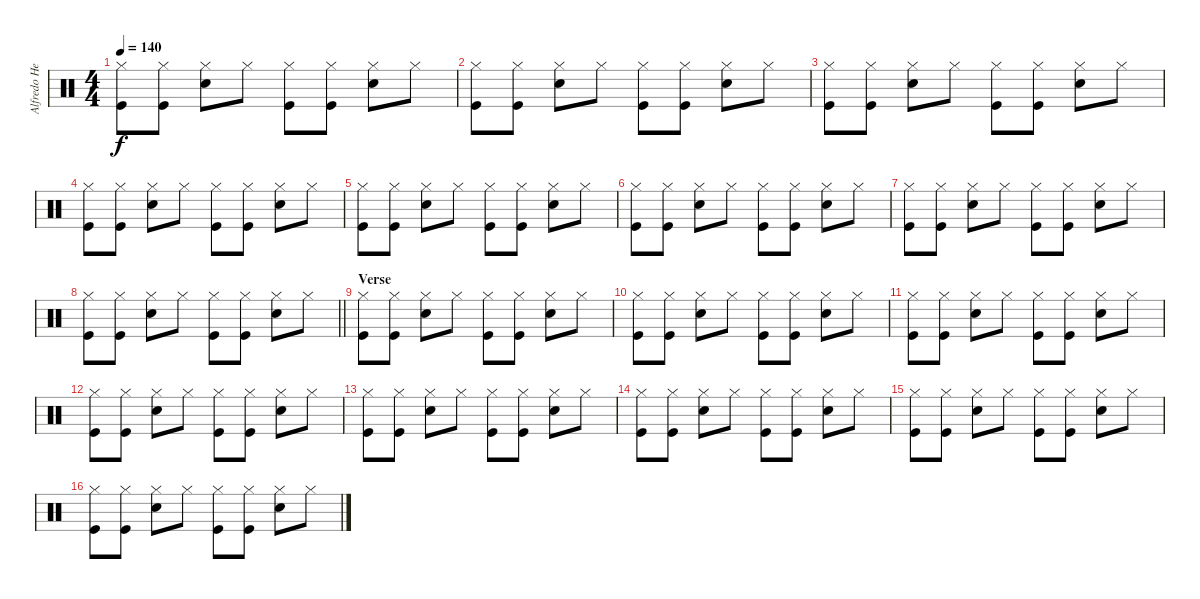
\track ("Alfredo Hernandez - Percussion" "Alfredo He") {instrument percussion}
\staff {score}
\articulation defaults
\ts (4 4)
\tempo 140
\clef neutral
\ks c
("Kick (hit)" "Hi-Hat (closed)").8{dy f} ("Kick (hit)" "Hi-Hat (closed)").8 ("Snare (hit) 2" "Hi-Hat (closed)").8 "Hi-Hat (closed)".8 ("Kick (hit)" "Hi-Hat (closed)").8 ("Kick (hit)" "Hi-Hat (closed)").8 ("Snare (hit) 2" "Hi-Hat (closed)").8 "Hi-Hat (closed)".8 |
("Kick (hit)" "Hi-Hat (closed)").8 ("Kick (hit)" "Hi-Hat (closed)").8 ("Snare (hit) 2" "Hi-Hat (closed)").8 "Hi-Hat (closed)".8 ("Kick (hit)" "Hi-Hat (closed)").8 ("Kick (hit)" "Hi-Hat (closed)").8 ("Snare (hit) 2" "Hi-Hat (closed)").8 "Hi-Hat (closed)".8 |
("Kick (hit)" "Hi-Hat (closed)").8 ("Kick (hit)" "Hi-Hat (closed)").8 ("Snare (hit) 2" "Hi-Hat (closed)").8 "Hi-Hat (closed)".8 ("Kick (hit)" "Hi-Hat (closed)").8 ("Kick (hit)" "Hi-Hat (closed)").8 ("Snare (hit) 2" "Hi-Hat (closed)").8 "Hi-Hat (closed)".8 |
("Kick (hit)" "Hi-Hat (closed)").8 ("Kick (hit)" "Hi-Hat (closed)").8 ("Snare (hit) 2" "Hi-Hat (closed)").8 "Hi-Hat (closed)".8 ("Kick (hit)" "Hi-Hat (closed)").8 ("Kick (hit)" "Hi-Hat (closed)").8 ("Snare (hit) 2" "Hi-Hat (closed)").8 "Hi-Hat (closed)".8 |
("Kick (hit)" "Hi-Hat (closed)").8 ("Kick (hit)" "Hi-Hat (closed)").8 ("Snare (hit) 2" "Hi-Hat (closed)").8 "Hi-Hat (closed)".8 ("Kick (hit)" "Hi-Hat (closed)").8 ("Kick (hit)" "Hi-Hat (closed)").8 ("Snare (hit) 2" "Hi-Hat (closed)").8 "Hi-Hat (closed)".8 |
("Kick (hit)" "Hi-Hat (closed)").8 ("Kick (hit)" "Hi-Hat (closed)").8 ("Snare (hit) 2" "Hi-Hat (closed)").8 "Hi-Hat (closed)".8 ("Kick (hit)" "Hi-Hat (closed)").8 ("Kick (hit)" "Hi-Hat (closed)").8 ("Snare (hit) 2" "Hi-Hat (closed)").8 "Hi-Hat (closed)".8 |
("Kick (hit)" "Hi-Hat (closed)").8 ("Kick (hit)" "Hi-Hat (closed)").8 ("Snare (hit) 2" "Hi-Hat (closed)").8 "Hi-Hat (closed)".8 ("Kick (hit)" "Hi-Hat (closed)").8 ("Kick (hit)" "Hi-Hat (closed)").8 ("Snare (hit) 2" "Hi-Hat (closed)").8 "Hi-Hat (closed)".8 |
\barLineRight lightlight
("Kick (hit)" "Hi-Hat (closed)").8 ("Kick (hit)" "Hi-Hat (closed)").8 ("Snare (hit) 2" "Hi-Hat (closed)").8 "Hi-Hat (closed)".8 ("Kick (hit)" "Hi-Hat (closed)").8 ("Kick (hit)" "Hi-Hat (closed)").8 ("Snare (hit) 2" "Hi-Hat (closed)").8 "Hi-Hat (closed)".8 |
\section ("" "Verse")
("Kick (hit)" "Hi-Hat (closed)").8 ("Kick (hit)" "Hi-Hat (closed)").8 ("Snare (hit) 2" "Hi-Hat (closed)").8 "Hi-Hat (closed)".8 ("Kick (hit)" "Hi-Hat (closed)").8 ("Kick (hit)" "Hi-Hat (closed)").8 ("Snare (hit) 2" "Hi-Hat (closed)").8 "Hi-Hat (closed)".8 |
("Kick (hit)" "Hi-Hat (closed)").8 ("Kick (hit)" "Hi-Hat (closed)").8 ("Snare (hit) 2" "Hi-Hat (closed)").8 "Hi-Hat (closed)".8 ("Kick (hit)" "Hi-Hat (closed)").8 ("Kick (hit)" "Hi-Hat (closed)").8 ("Snare (hit) 2" "Hi-Hat (closed)").8 "Hi-Hat (closed)".8 |
("Kick (hit)" "Hi-Hat (closed)").8 ("Kick (hit)" "Hi-Hat (closed)").8 ("Snare (hit) 2" "Hi-Hat (closed)").8 "Hi-Hat (closed)".8 ("Kick (hit)" "Hi-Hat (closed)").8 ("Kick (hit)" "Hi-Hat (closed)").8 ("Snare (hit) 2" "Hi-Hat (closed)").8 "Hi-Hat (closed)".8 |
("Kick (hit)" "Hi-Hat (closed)").8 ("Kick (hit)" "Hi-Hat (closed)").8 ("Snare (hit) 2" "Hi-Hat (closed)").8 "Hi-Hat (closed)".8 ("Kick (hit)" "Hi-Hat (closed)").8 ("Kick (hit)" "Hi-Hat (closed)").8 ("Snare (hit) 2" "Hi-Hat (closed)").8 "Hi-Hat (closed)".8 |
("Kick (hit)" "Hi-Hat (closed)").8 ("Kick (hit)" "Hi-Hat (closed)").8 ("Snare (hit) 2" "Hi-Hat (closed)").8 "Hi-Hat (closed)".8 ("Kick (hit)" "Hi-Hat (closed)").8 ("Kick (hit)" "Hi-Hat (closed)").8 ("Snare (hit) 2" "Hi-Hat (closed)").8 "Hi-Hat (closed)".8 |
("Kick (hit)" "Hi-Hat (closed)").8 ("Kick (hit)" "Hi-Hat (closed)").8 ("Snare (hit) 2" "Hi-Hat (closed)").8 "Hi-Hat (closed)".8 ("Kick (hit)" "Hi-Hat (closed)").8 ("Kick (hit)" "Hi-Hat (closed)").8 ("Snare (hit) 2" "Hi-Hat (closed)").8 "Hi-Hat (closed)".8 |
("Kick (hit)" "Hi-Hat (closed)").8 ("Kick (hit)" "Hi-Hat (closed)").8 ("Snare (hit) 2" "Hi-Hat (closed)").8 "Hi-Hat (closed)".8 ("Kick (hit)" "Hi-Hat (closed)").8 ("Kick (hit)" "Hi-Hat (closed)").8 ("Snare (hit) 2" "Hi-Hat (closed)").8 "Hi-Hat (closed)".8 |
("Kick (hit)" "Hi-Hat (closed)").8 ("Kick (hit)" "Hi-Hat (closed)").8 ("Snare (hit) 2" "Hi-Hat (closed)").8 "Hi-Hat (closed)".8 ("Kick (hit)" "Hi-Hat (closed)").8 ("Kick (hit)" "Hi-Hat (closed)").8 ("Snare (hit) 2" "Hi-Hat (closed)").8 "Hi-Hat (closed)".8
